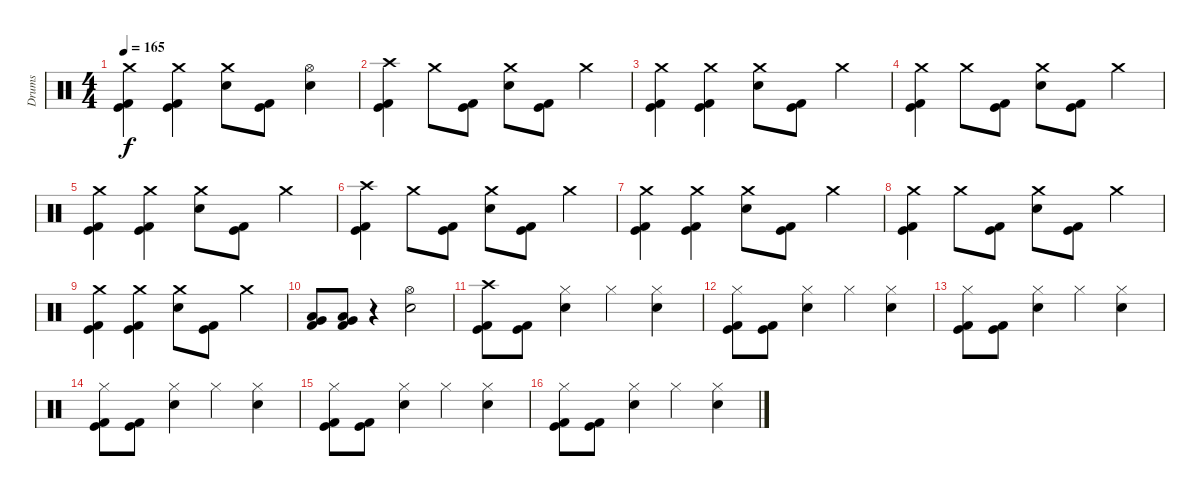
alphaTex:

\track ("Drums" "Drums") {instrument percussion}
\staff {score}
\articulation defaults
\ts (4 4)
\tempo 165
\clef neutral
\ks c
("Crash medium (hit)" "Kick (hit)" "Kick (hit) 2").4{dy f} ("Crash medium (hit)" "Kick (hit)" "Kick (hit) 2").4 ("Crash medium (hit)" "Electric Snare (hit)").8 ("Kick (hit)" "Kick (hit) 2").8 ("Hi-Hat (open)" "Electric Snare (hit)").4 |
("Crash high (hit)" "Kick (hit) 2" "Kick (hit)").4 "Crash medium (hit)".8 ("Kick (hit)" "Kick (hit) 2").8 ("Crash medium (hit)" "Electric Snare (hit)").8 ("Kick (hit)" "Kick (hit) 2").8 "Crash medium (hit)".4 |
("Crash medium (hit)" "Kick (hit)" "Kick (hit) 2").4 ("Crash medium (hit)" "Kick (hit)" "Kick (hit) 2").4 ("Crash medium (hit)" "Electric Snare (hit)").8 ("Kick (hit)" "Kick (hit) 2").8 "Crash medium (hit)".4 |
("Crash medium (hit)" "Kick (hit) 2" "Kick (hit)").4 "Crash medium (hit)".8 ("Kick (hit)" "Kick (hit) 2").8 ("Crash medium (hit)" "Electric Snare (hit)").8 ("Kick (hit)" "Kick (hit) 2").8 "Crash medium (hit)".4 |
("Crash medium (hit)" "Kick (hit)" "Kick (hit) 2").4 ("Crash medium (hit)" "Kick (hit)" "Kick (hit) 2").4 ("Crash medium (hit)" "Electric Snare (hit)").8 ("Kick (hit)" "Kick (hit) 2").8 "Crash medium (hit)".4 |
("Crash high (hit)" "Kick (hit) 2" "Kick (hit)").4 "Crash medium (hit)".8 ("Kick (hit)" "Kick (hit) 2").8 ("Crash medium (hit)" "Electric Snare (hit)").8 ("Kick (hit)" "Kick (hit) 2").8 "Crash medium (hit)".4 |
("Crash medium (hit)" "Kick (hit)" "Kick (hit) 2").4 ("Crash medium (hit)" "Kick (hit)" "Kick (hit) 2").4 ("Crash medium (hit)" "Electric Snare (hit)").8 ("Kick (hit)" "Kick (hit) 2").8 "Crash medium (hit)".4 |
("Crash medium (hit)" "Kick (hit) 2" "Kick (hit)").4 "Crash medium (hit)".8 ("Kick (hit)" "Kick (hit) 2").8 ("Crash medium (hit)" "Electric Snare (hit)").8 ("Kick (hit)" "Kick (hit) 2").8 "Crash medium (hit)".4 |
("Crash medium (hit)" "Kick (hit)" "Kick (hit) 2").4 ("Crash medium (hit)" "Kick (hit)" "Kick (hit) 2").4 ("Crash medium (hit)" "Electric Snare (hit)").8 ("Kick (hit)" "Kick (hit) 2").8 "Crash medium (hit)".4 |
("Very Low Tom (hit)" "Low Tom (hit)" "Kick (hit) 2").8 ("Low Tom (hit)" "Very Low Tom (hit)" "Kick (hit) 2").8 r.4 ("Hi-Hat (open)" "Electric Snare (hit)").2 |
("Crash high (hit)" "Kick (hit)" "Kick (hit) 2").8 ("Kick (hit)" "Kick (hit) 2").8 ("Hi-Hat (closed)" "Electric Snare (hit)").4 "Hi-Hat (closed)".4 ("Hi-Hat (closed)" "Electric Snare (hit)").4 |
("Hi-Hat (closed)" "Kick (hit)" "Kick (hit) 2").8 ("Kick (hit)" "Kick (hit) 2").8 ("Hi-Hat (closed)" "Electric Snare (hit)").4 "Hi-Hat (closed)".4 ("Hi-Hat (closed)" "Electric Snare (hit)").4 |
("Hi-Hat (closed)" "Kick (hit)" "Kick (hit) 2").8 ("Kick (hit)" "Kick (hit) 2").8 ("Hi-Hat (closed)" "Electric Snare (hit)").4 "Hi-Hat (closed)".4 ("Hi-Hat (closed)" "Electric Snare (hit)").4 |
("Hi-Hat (closed)" "Kick (hit)" "Kick (hit) 2").8 ("Kick (hit)" "Kick (hit) 2").8 ("Hi-Hat (closed)" "Electric Snare (hit)").4 "Hi-Hat (closed)".4 ("Hi-Hat (closed)" "Electric Snare (hit)").4 |
("Hi-Hat (closed)" "Kick (hit)" "Kick (hit) 2").8 ("Kick (hit)" "Kick (hit) 2").8 ("Hi-Hat (closed)" "Electric Snare (hit)").4 "Hi-Hat (closed)".4 ("Hi-Hat (closed)" "Electric Snare (hit)").4 |
("Hi-Hat (closed)" "Kick (hit)" "Kick (hit) 2").8 ("Kick (hit)" "Kick (hit) 2").8 ("Hi-Hat (closed)" "Electric Snare (hit)").4 "Hi-Hat (closed)".4 ("Hi-Hat (closed)" "Electric Snare (hit)").4
